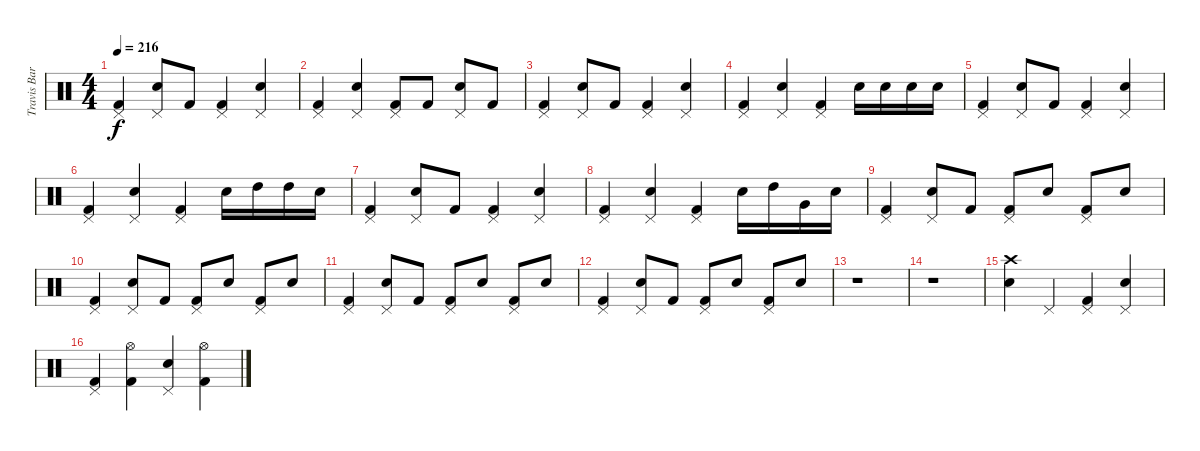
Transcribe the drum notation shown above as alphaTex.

\track ("Travis Barker (Drums)" "Travis Bar") {instrument percussion}
\staff {score}
\articulation defaults
\ts (4 4)
\tempo 216
\clef neutral
\ks c
("Pedal Hi-Hat (hit)" "Kick (hit) 2").4{dy f} ("Pedal Hi-Hat (hit)" "Electric Snare (hit)").8 "Kick (hit) 2".8 ("Pedal Hi-Hat (hit)" "Kick (hit) 2").4 ("Pedal Hi-Hat (hit)" "Electric Snare (hit)").4 |
("Pedal Hi-Hat (hit)" "Kick (hit) 2").4 ("Pedal Hi-Hat (hit)" "Electric Snare (hit)").4 ("Pedal Hi-Hat (hit)" "Kick (hit) 2").8 "Kick (hit) 2".8 ("Pedal Hi-Hat (hit)" "Electric Snare (hit)").8 "Kick (hit) 2".8 |
("Pedal Hi-Hat (hit)" "Kick (hit) 2").4 ("Pedal Hi-Hat (hit)" "Electric Snare (hit)").8 "Kick (hit) 2".8 ("Pedal Hi-Hat (hit)" "Kick (hit) 2").4 ("Pedal Hi-Hat (hit)" "Electric Snare (hit)").4 |
("Pedal Hi-Hat (hit)" "Kick (hit) 2").4 ("Pedal Hi-Hat (hit)" "Electric Snare (hit)").4 ("Pedal Hi-Hat (hit)" "Kick (hit) 2").4 "Electric Snare (hit)".16 "Electric Snare (hit)".16 "Electric Snare (hit)".16 "Electric Snare (hit)".16 |
("Pedal Hi-Hat (hit)" "Kick (hit) 2").4 ("Pedal Hi-Hat (hit)" "Electric Snare (hit)").8 "Kick (hit) 2".8 ("Pedal Hi-Hat (hit)" "Kick (hit) 2").4 ("Pedal Hi-Hat (hit)" "Electric Snare (hit)").4 |
("Pedal Hi-Hat (hit)" "Kick (hit) 2").4 ("Pedal Hi-Hat (hit)" "Electric Snare (hit)").4 ("Pedal Hi-Hat (hit)" "Kick (hit) 2").4 "Electric Snare (hit)".16 "High Tom (hit)".16 "High Tom (hit)".16 "Electric Snare (hit)".16 |
("Pedal Hi-Hat (hit)" "Kick (hit) 2").4 ("Pedal Hi-Hat (hit)" "Electric Snare (hit)").8 "Kick (hit) 2".8 ("Pedal Hi-Hat (hit)" "Kick (hit) 2").4 ("Pedal Hi-Hat (hit)" "Electric Snare (hit)").4 |
("Pedal Hi-Hat (hit)" "Kick (hit) 2").4 ("Pedal Hi-Hat (hit)" "Electric Snare (hit)").4 ("Pedal Hi-Hat (hit)" "Kick (hit) 2").4 "Electric Snare (hit)".16 "High Tom (hit)".16 "Very Low Tom (hit)".16 "Electric Snare (hit)".16 |
("Pedal Hi-Hat (hit)" "Kick (hit) 2").4 ("Pedal Hi-Hat (hit)" "Electric Snare (hit)").8 "Kick (hit) 2".8 ("Pedal Hi-Hat (hit)" "Kick (hit) 2").8 "Electric Snare (hit)".8 ("Pedal Hi-Hat (hit)" "Kick (hit) 2").8 "Electric Snare (hit)".8 |
("Pedal Hi-Hat (hit)" "Kick (hit) 2").4 ("Pedal Hi-Hat (hit)" "Electric Snare (hit)").8 "Kick (hit) 2".8 ("Pedal Hi-Hat (hit)" "Kick (hit) 2").8 "Electric Snare (hit)".8 ("Pedal Hi-Hat (hit)" "Kick (hit) 2").8 "Electric Snare (hit)".8 |
("Pedal Hi-Hat (hit)" "Kick (hit) 2").4 ("Pedal Hi-Hat (hit)" "Electric Snare (hit)").8 "Kick (hit) 2".8 ("Pedal Hi-Hat (hit)" "Kick (hit) 2").8 "Electric Snare (hit)".8 ("Pedal Hi-Hat (hit)" "Kick (hit) 2").8 "Electric Snare (hit)".8 |
("Pedal Hi-Hat (hit)" "Kick (hit) 2").4 ("Pedal Hi-Hat (hit)" "Electric Snare (hit)").8 "Kick (hit) 2".8 ("Pedal Hi-Hat (hit)" "Kick (hit) 2").8 "Electric Snare (hit)".8 ("Pedal Hi-Hat (hit)" "Kick (hit) 2").8 "Electric Snare (hit)".8 |
r.1 |
r.1 |
("Crash high (hit)" "Electric Snare (hit)").4 "Pedal Hi-Hat (hit)".4 ("Pedal Hi-Hat (hit)" "Kick (hit) 2").4 ("Pedal Hi-Hat (hit)" "Electric Snare (hit)").4 |
("Pedal Hi-Hat (hit)" "Kick (hit) 2").4 ("Hi-Hat (open)" "Kick (hit) 2").4 ("Pedal Hi-Hat (hit)" "Electric Snare (hit)").4 ("Hi-Hat (open)" "Kick (hit) 2").4
